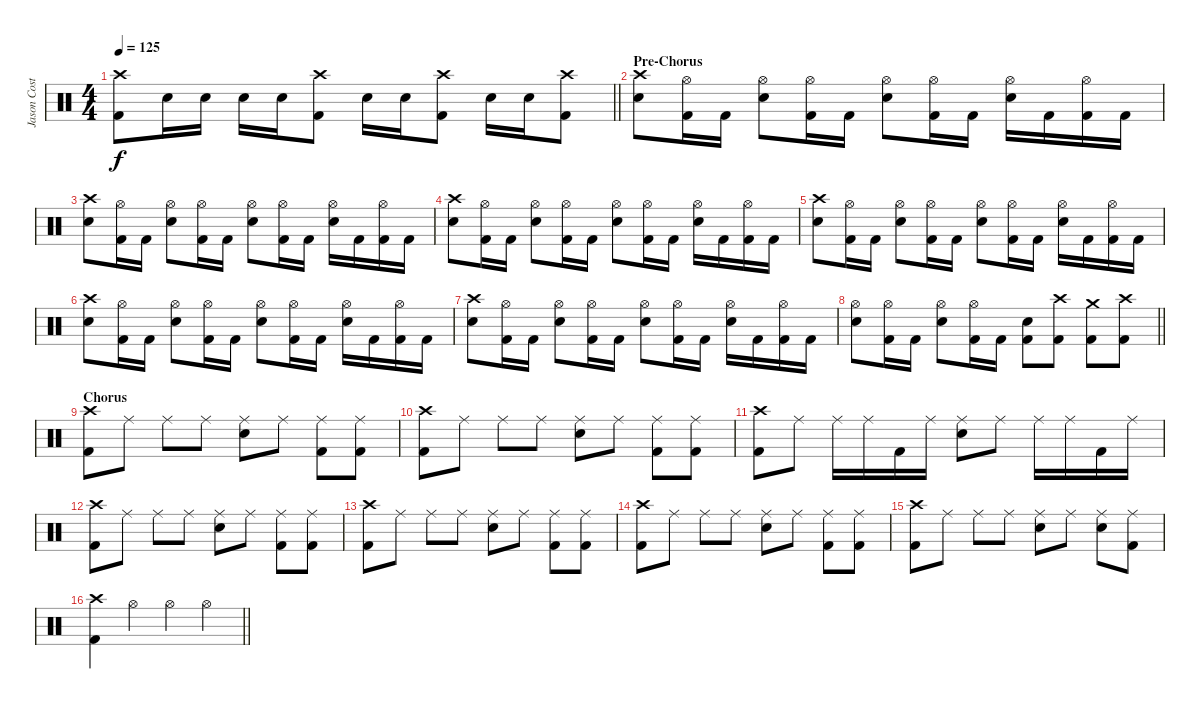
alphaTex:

\track ("Jason Costa" "Jason Cost") {instrument percussion}
\staff {score}
\articulation defaults
\ts (4 4)
\tempo 125
\clef neutral
\barLineRight lightlight
\ks c
("Crash high (hit)" "Kick (hit) 2").8{dy f} "Electric Snare (hit)".16 "Electric Snare (hit)".16 "Electric Snare (hit)".16 "Electric Snare (hit)".16 ("Crash high (hit)" "Kick (hit) 2").8 "Electric Snare (hit)".16 "Electric Snare (hit)".16 ("Crash high (hit)" "Kick (hit) 2").8 "Electric Snare (hit)".16 "Electric Snare (hit)".16 ("Crash high (hit)" "Kick (hit) 2").8 |
\section ("" "Pre-Chorus")
("Crash high (hit)" "Electric Snare (hit)").8 ("Hi-Hat (open)" "Kick (hit) 2").16 "Kick (hit) 2".16 ("Hi-Hat (open)" "Electric Snare (hit)").8 ("Hi-Hat (open)" "Kick (hit) 2").16 "Kick (hit) 2".16 ("Hi-Hat (open)" "Electric Snare (hit)").8 ("Hi-Hat (open)" "Kick (hit) 2").16 "Kick (hit) 2".16 ("Hi-Hat (open)" "Electric Snare (hit)").16 "Kick (hit) 2".16 ("Hi-Hat (open)" "Kick (hit) 2").16 "Kick (hit) 2".16 |
("Crash high (hit)" "Electric Snare (hit)").8 ("Hi-Hat (open)" "Kick (hit) 2").16 "Kick (hit) 2".16 ("Hi-Hat (open)" "Electric Snare (hit)").8 ("Hi-Hat (open)" "Kick (hit) 2").16 "Kick (hit) 2".16 ("Hi-Hat (open)" "Electric Snare (hit)").8 ("Hi-Hat (open)" "Kick (hit) 2").16 "Kick (hit) 2".16 ("Hi-Hat (open)" "Electric Snare (hit)").16 "Kick (hit) 2".16 ("Hi-Hat (open)" "Kick (hit) 2").16 "Kick (hit) 2".16 |
("Crash high (hit)" "Electric Snare (hit)").8 ("Hi-Hat (open)" "Kick (hit) 2").16 "Kick (hit) 2".16 ("Hi-Hat (open)" "Electric Snare (hit)").8 ("Hi-Hat (open)" "Kick (hit) 2").16 "Kick (hit) 2".16 ("Hi-Hat (open)" "Electric Snare (hit)").8 ("Hi-Hat (open)" "Kick (hit) 2").16 "Kick (hit) 2".16 ("Hi-Hat (open)" "Electric Snare (hit)").16 "Kick (hit) 2".16 ("Hi-Hat (open)" "Kick (hit) 2").16 "Kick (hit) 2".16 |
("Crash high (hit)" "Electric Snare (hit)").8 ("Hi-Hat (open)" "Kick (hit) 2").16 "Kick (hit) 2".16 ("Hi-Hat (open)" "Electric Snare (hit)").8 ("Hi-Hat (open)" "Kick (hit) 2").16 "Kick (hit) 2".16 ("Hi-Hat (open)" "Electric Snare (hit)").8 ("Hi-Hat (open)" "Kick (hit) 2").16 "Kick (hit) 2".16 ("Hi-Hat (open)" "Electric Snare (hit)").16 "Kick (hit) 2".16 ("Hi-Hat (open)" "Kick (hit) 2").16 "Kick (hit) 2".16 |
("Crash high (hit)" "Electric Snare (hit)").8 ("Hi-Hat (open)" "Kick (hit) 2").16 "Kick (hit) 2".16 ("Hi-Hat (open)" "Electric Snare (hit)").8 ("Hi-Hat (open)" "Kick (hit) 2").16 "Kick (hit) 2".16 ("Hi-Hat (open)" "Electric Snare (hit)").8 ("Hi-Hat (open)" "Kick (hit) 2").16 "Kick (hit) 2".16 ("Hi-Hat (open)" "Electric Snare (hit)").16 "Kick (hit) 2".16 ("Hi-Hat (open)" "Kick (hit) 2").16 "Kick (hit) 2".16 |
("Crash high (hit)" "Electric Snare (hit)").8 ("Hi-Hat (open)" "Kick (hit) 2").16 "Kick (hit) 2".16 ("Hi-Hat (open)" "Electric Snare (hit)").8 ("Hi-Hat (open)" "Kick (hit) 2").16 "Kick (hit) 2".16 ("Hi-Hat (open)" "Electric Snare (hit)").8 ("Hi-Hat (open)" "Kick (hit) 2").16 "Kick (hit) 2".16 ("Hi-Hat (open)" "Electric Snare (hit)").16 "Kick (hit) 2".16 ("Hi-Hat (open)" "Kick (hit) 2").16 "Kick (hit) 2".16 |
\barLineRight lightlight
("Hi-Hat (open)" "Electric Snare (hit)").8 ("Hi-Hat (open)" "Kick (hit) 2").16 "Kick (hit) 2".16 ("Hi-Hat (open)" "Electric Snare (hit)").8 ("Hi-Hat (open)" "Kick (hit) 2").16 "Kick (hit) 2".16 ("Electric Snare (hit)" "Kick (hit) 2").8 ("Crash high (hit)" "Kick (hit) 2").8 ("Crash medium (hit)" "Kick (hit) 2").8 ("Crash high (hit)" "Kick (hit) 2").8 |
\section ("" "Chorus")
("Crash high (hit)" "Kick (hit) 2").8 "Ride (middle)".8 "Ride (middle)".8 "Ride (middle)".8 ("Ride (middle)" "Electric Snare (hit)").8 "Ride (middle)".8 ("Ride (middle)" "Kick (hit) 2").8 ("Ride (middle)" "Kick (hit) 2").8 |
("Crash high (hit)" "Kick (hit) 2").8 "Ride (middle)".8 "Ride (middle)".8 "Ride (middle)".8 ("Ride (middle)" "Electric Snare (hit)").8 "Ride (middle)".8 ("Ride (middle)" "Kick (hit) 2").8 ("Ride (middle)" "Kick (hit) 2").8 |
("Crash high (hit)" "Kick (hit) 2").8 "Ride (middle)".8 "Ride (middle)".16 "Ride (middle)".16 "Kick (hit) 2".16 "Ride (middle)".16 ("Ride (middle)" "Electric Snare (hit)").8 "Ride (middle)".8 "Ride (middle)".16 "Ride (middle)".16 "Kick (hit) 2".16 "Ride (middle)".16 |
("Crash high (hit)" "Kick (hit) 2").8 "Ride (middle)".8 "Ride (middle)".8 "Ride (middle)".8 ("Ride (middle)" "Electric Snare (hit)").8 "Ride (middle)".8 ("Ride (middle)" "Kick (hit) 2").8 ("Ride (middle)" "Kick (hit) 2").8 |
("Crash high (hit)" "Kick (hit) 2").8 "Ride (middle)".8 "Ride (middle)".8 "Ride (middle)".8 ("Ride (middle)" "Electric Snare (hit)").8 "Ride (middle)".8 ("Ride (middle)" "Kick (hit) 2").8 ("Ride (middle)" "Kick (hit) 2").8 |
("Crash high (hit)" "Kick (hit) 2").8 "Ride (middle)".8 "Ride (middle)".8 "Ride (middle)".8 ("Ride (middle)" "Electric Snare (hit)").8 "Ride (middle)".8 ("Ride (middle)" "Kick (hit) 2").8 ("Ride (middle)" "Kick (hit) 2").8 |
("Crash high (hit)" "Kick (hit) 2").8 "Ride (middle)".8 "Ride (middle)".8 "Ride (middle)".8 ("Ride (middle)" "Electric Snare (hit)").8 "Ride (middle)".8 ("Ride (middle)" "Electric Snare (hit)").8 ("Ride (middle)" "Kick (hit) 2").8 |
\barLineRight lightlight
("Crash high (hit)" "Kick (hit) 2").4 "Hi-Hat (open)".4 "Hi-Hat (open)".4 "Hi-Hat (open)".4
